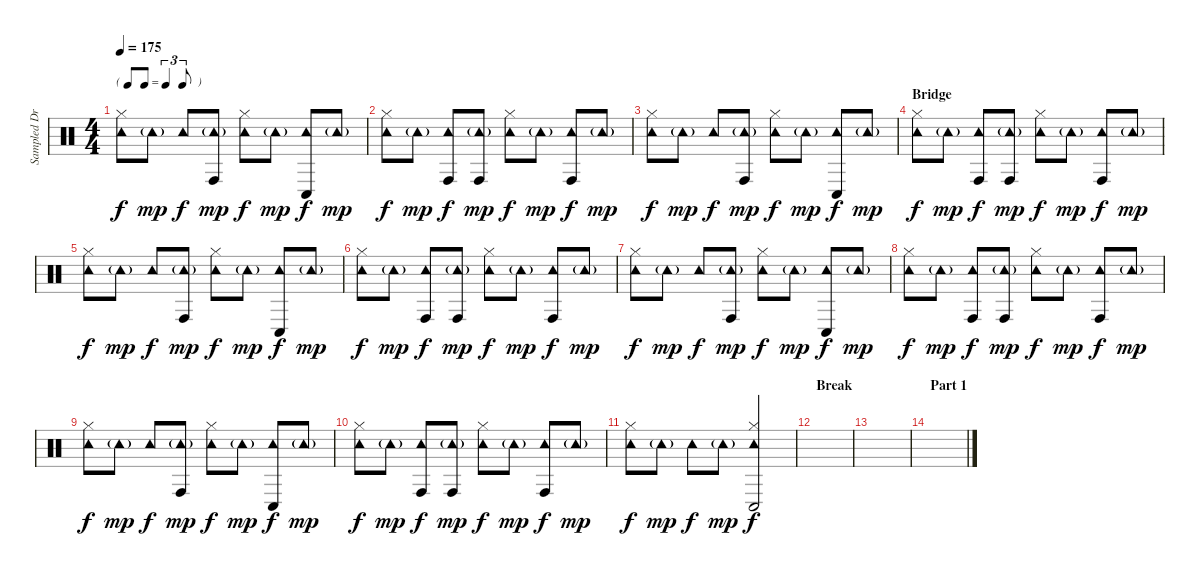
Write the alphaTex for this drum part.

\track ("Sampled Drums" "Sampled Dr") {instrument percussion}
\staff {score}
\articulation defaults
\ts (4 4)
\tf triplet8th
\tempo 175
\clef neutral
\ks c
("Tambourine (hit)" "Hi-Hat (closed)").8{dy f} "Tambourine (hit)"{g}.8{dy mp} "Tambourine (hit)".8{dy f} ("Tambourine (hit)"{g} "Conga high (hit)").8{dy mp} ("Tambourine (hit)" "Hi-Hat (closed)").8{dy f} "Tambourine (hit)"{g}.8{dy mp} ("Tambourine (hit)" "Conga low (hit)").8{dy f} "Tambourine (hit)"{g}.8{dy mp} |
("Tambourine (hit)" "Hi-Hat (closed)").8{dy f} "Tambourine (hit)"{g}.8{dy mp} ("Tambourine (hit)" "Conga high (hit)").8{dy f} ("Tambourine (hit)"{g} "Conga high (hit)").8{dy mp} ("Tambourine (hit)" "Hi-Hat (closed)").8{dy f} "Tambourine (hit)"{g}.8{dy mp} ("Tambourine (hit)" "Conga high (hit)").8{dy f} "Tambourine (hit)"{g}.8{dy mp} |
("Tambourine (hit)" "Hi-Hat (closed)").8{dy f} "Tambourine (hit)"{g}.8{dy mp} "Tambourine (hit)".8{dy f} ("Tambourine (hit)"{g} "Conga high (hit)").8{dy mp} ("Tambourine (hit)" "Hi-Hat (closed)").8{dy f} "Tambourine (hit)"{g}.8{dy mp} ("Tambourine (hit)" "Conga low (hit)").8{dy f} "Tambourine (hit)"{g}.8{dy mp} |
\section ("" "Bridge")
("Tambourine (hit)" "Hi-Hat (closed)").8{dy f} "Tambourine (hit)"{g}.8{dy mp} ("Tambourine (hit)" "Conga high (hit)").8{dy f} ("Tambourine (hit)"{g} "Conga high (hit)").8{dy mp} ("Tambourine (hit)" "Hi-Hat (closed)").8{dy f} "Tambourine (hit)"{g}.8{dy mp} ("Tambourine (hit)" "Conga high (hit)").8{dy f} "Tambourine (hit)"{g}.8{dy mp} |
("Tambourine (hit)" "Hi-Hat (closed)").8{dy f} "Tambourine (hit)"{g}.8{dy mp} "Tambourine (hit)".8{dy f} ("Tambourine (hit)"{g} "Conga high (hit)").8{dy mp} ("Tambourine (hit)" "Hi-Hat (closed)").8{dy f} "Tambourine (hit)"{g}.8{dy mp} ("Tambourine (hit)" "Conga low (hit)").8{dy f} "Tambourine (hit)"{g}.8{dy mp} |
("Tambourine (hit)" "Hi-Hat (closed)").8{dy f} "Tambourine (hit)"{g}.8{dy mp} ("Tambourine (hit)" "Conga high (hit)").8{dy f} ("Tambourine (hit)"{g} "Conga high (hit)").8{dy mp} ("Tambourine (hit)" "Hi-Hat (closed)").8{dy f} "Tambourine (hit)"{g}.8{dy mp} ("Tambourine (hit)" "Conga high (hit)").8{dy f} "Tambourine (hit)"{g}.8{dy mp} |
("Tambourine (hit)" "Hi-Hat (closed)").8{dy f} "Tambourine (hit)"{g}.8{dy mp} "Tambourine (hit)".8{dy f} ("Tambourine (hit)"{g} "Conga high (hit)").8{dy mp} ("Tambourine (hit)" "Hi-Hat (closed)").8{dy f} "Tambourine (hit)"{g}.8{dy mp} ("Tambourine (hit)" "Conga low (hit)").8{dy f} "Tambourine (hit)"{g}.8{dy mp} |
("Tambourine (hit)" "Hi-Hat (closed)").8{dy f} "Tambourine (hit)"{g}.8{dy mp} ("Tambourine (hit)" "Conga high (hit)").8{dy f} ("Tambourine (hit)"{g} "Conga high (hit)").8{dy mp} ("Tambourine (hit)" "Hi-Hat (closed)").8{dy f} "Tambourine (hit)"{g}.8{dy mp} ("Tambourine (hit)" "Conga high (hit)").8{dy f} "Tambourine (hit)"{g}.8{dy mp} |
("Tambourine (hit)" "Hi-Hat (closed)").8{dy f} "Tambourine (hit)"{g}.8{dy mp} "Tambourine (hit)".8{dy f} ("Tambourine (hit)"{g} "Conga high (hit)").8{dy mp} ("Tambourine (hit)" "Hi-Hat (closed)").8{dy f} "Tambourine (hit)"{g}.8{dy mp} ("Tambourine (hit)" "Conga low (hit)").8{dy f} "Tambourine (hit)"{g}.8{dy mp} |
("Tambourine (hit)" "Hi-Hat (closed)").8{dy f} "Tambourine (hit)"{g}.8{dy mp} ("Tambourine (hit)" "Conga high (hit)").8{dy f} ("Tambourine (hit)"{g} "Conga high (hit)").8{dy mp} ("Tambourine (hit)" "Hi-Hat (closed)").8{dy f} "Tambourine (hit)"{g}.8{dy mp} ("Tambourine (hit)" "Conga high (hit)").8{dy f} "Tambourine (hit)"{g}.8{dy mp} |
("Tambourine (hit)" "Hi-Hat (closed)").8{dy f} "Tambourine (hit)"{g}.8{dy mp} "Tambourine (hit)".8{dy f} "Tambourine (hit)"{g}.8{dy mp} ("Tambourine (hit)" "Conga low (hit)" "Hi-Hat (closed)").2{dy f} |
\section ("" "Break")
|
|
\section ("" "Part 1")
